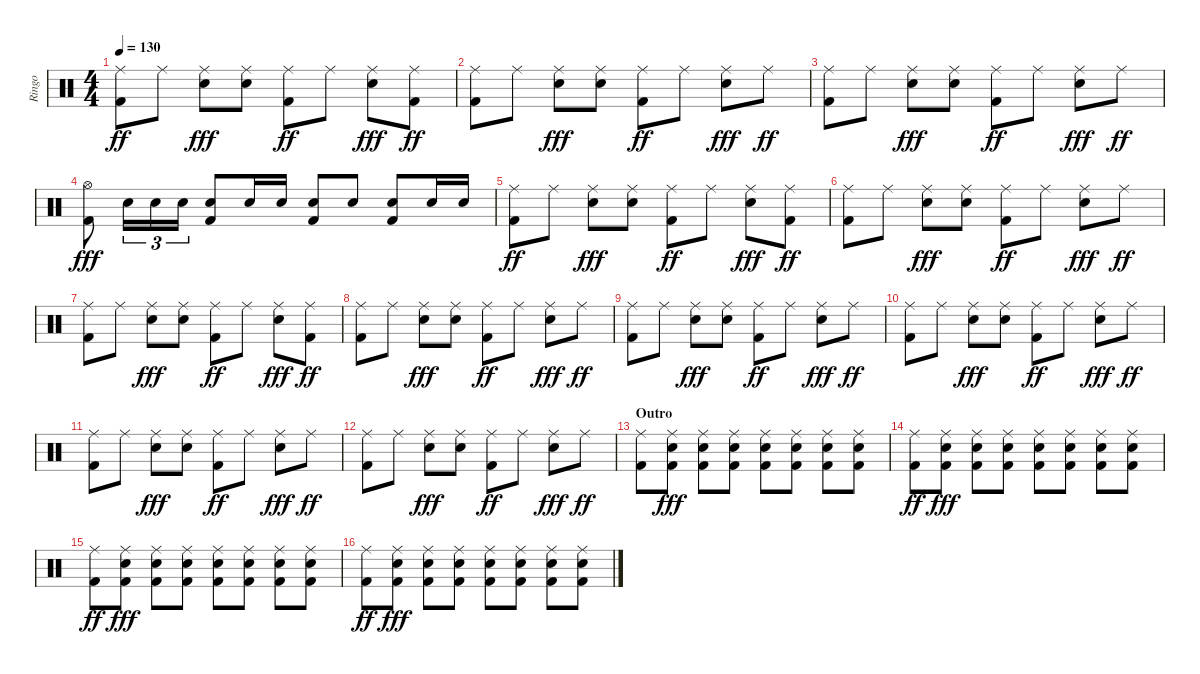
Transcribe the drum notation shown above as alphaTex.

\track ("Ringo" "Ringo") {instrument percussion}
\staff {score}
\articulation defaults
\ts (4 4)
\tempo 130
\clef neutral
\ks c
("Ride (middle)" "Kick (hit) 2").8{dy ff} "Ride (middle)".8 ("Ride (middle)" "Electric Snare (hit)").8{dy fff} ("Ride (middle)" "Electric Snare (hit)").8 ("Ride (middle)" "Kick (hit) 2").8{dy ff} "Ride (middle)".8 ("Ride (middle)" "Electric Snare (hit)").8{dy fff} ("Ride (middle)" "Kick (hit) 2").8{dy ff} |
("Ride (middle)" "Kick (hit) 2").8 "Ride (middle)".8 ("Ride (middle)" "Electric Snare (hit)").8{dy fff} ("Ride (middle)" "Electric Snare (hit)").8 ("Ride (middle)" "Kick (hit) 2").8{dy ff} "Ride (middle)".8 ("Ride (middle)" "Electric Snare (hit)").8{dy fff} "Ride (middle)".8{dy ff} |
("Ride (middle)" "Kick (hit) 2").8 "Ride (middle)".8 ("Ride (middle)" "Electric Snare (hit)").8{dy fff} ("Ride (middle)" "Electric Snare (hit)").8 ("Ride (middle)" "Kick (hit) 2").8{dy ff} "Ride (middle)".8 ("Ride (middle)" "Electric Snare (hit)").8{dy fff} "Ride (middle)".8{dy ff} |
("Hi-Hat (open)" "Kick (hit) 2").8{dy fff} "Electric Snare (hit)".16{tu (3 2)} "Electric Snare (hit)".16{tu (3 2)} "Electric Snare (hit)".16{tu (3 2)} ("Electric Snare (hit)" "Kick (hit) 2").8 "Electric Snare (hit)".16 "Electric Snare (hit)".16 ("Electric Snare (hit)" "Kick (hit) 2").8 "Electric Snare (hit)".8 ("Electric Snare (hit)" "Kick (hit) 2").8 "Electric Snare (hit)".16 "Electric Snare (hit)".16 |
("Ride (middle)" "Kick (hit) 2").8{dy ff} "Ride (middle)".8 ("Ride (middle)" "Electric Snare (hit)").8{dy fff} ("Ride (middle)" "Electric Snare (hit)").8 ("Ride (middle)" "Kick (hit) 2").8{dy ff} "Ride (middle)".8 ("Ride (middle)" "Electric Snare (hit)").8{dy fff} ("Ride (middle)" "Kick (hit) 2").8{dy ff} |
("Ride (middle)" "Kick (hit) 2").8 "Ride (middle)".8 ("Ride (middle)" "Electric Snare (hit)").8{dy fff} ("Ride (middle)" "Electric Snare (hit)").8 ("Ride (middle)" "Kick (hit) 2").8{dy ff} "Ride (middle)".8 ("Ride (middle)" "Electric Snare (hit)").8{dy fff} "Ride (middle)".8{dy ff} |
("Ride (middle)" "Kick (hit) 2").8 "Ride (middle)".8 ("Ride (middle)" "Electric Snare (hit)").8{dy fff} ("Ride (middle)" "Electric Snare (hit)").8 ("Ride (middle)" "Kick (hit) 2").8{dy ff} "Ride (middle)".8 ("Ride (middle)" "Electric Snare (hit)").8{dy fff} ("Ride (middle)" "Kick (hit) 2").8{dy ff} |
("Ride (middle)" "Kick (hit) 2").8 "Ride (middle)".8 ("Ride (middle)" "Electric Snare (hit)").8{dy fff} ("Ride (middle)" "Electric Snare (hit)").8 ("Ride (middle)" "Kick (hit) 2").8{dy ff} "Ride (middle)".8 ("Ride (middle)" "Electric Snare (hit)").8{dy fff} "Ride (middle)".8{dy ff} |
("Ride (middle)" "Kick (hit) 2").8 "Ride (middle)".8 ("Ride (middle)" "Electric Snare (hit)").8{dy fff} ("Ride (middle)" "Electric Snare (hit)").8 ("Ride (middle)" "Kick (hit) 2").8{dy ff} "Ride (middle)".8 ("Ride (middle)" "Electric Snare (hit)").8{dy fff} "Ride (middle)".8{dy ff} |
("Ride (middle)" "Kick (hit) 2").8 "Ride (middle)".8 ("Ride (middle)" "Electric Snare (hit)").8{dy fff} ("Ride (middle)" "Electric Snare (hit)").8 ("Ride (middle)" "Kick (hit) 2").8{dy ff} "Ride (middle)".8 ("Ride (middle)" "Electric Snare (hit)").8{dy fff} "Ride (middle)".8{dy ff} |
("Ride (middle)" "Kick (hit) 2").8 "Ride (middle)".8 ("Ride (middle)" "Electric Snare (hit)").8{dy fff} ("Ride (middle)" "Electric Snare (hit)").8 ("Ride (middle)" "Kick (hit) 2").8{dy ff} "Ride (middle)".8 ("Ride (middle)" "Electric Snare (hit)").8{dy fff} "Ride (middle)".8{dy ff} |
("Ride (middle)" "Kick (hit) 2").8 "Ride (middle)".8 ("Ride (middle)" "Electric Snare (hit)").8{dy fff} ("Ride (middle)" "Electric Snare (hit)").8 ("Ride (middle)" "Kick (hit) 2").8{dy ff} "Ride (middle)".8 ("Ride (middle)" "Electric Snare (hit)").8{dy fff} "Ride (middle)".8{dy ff} |
\section ("" "Outro")
("Ride (middle)" "Kick (hit) 2").8 ("Ride (middle)" "Electric Snare (hit)" "Kick (hit) 2").8{dy fff} ("Ride (middle)" "Electric Snare (hit)" "Kick (hit) 2").8 ("Ride (middle)" "Electric Snare (hit)" "Kick (hit) 2").8 ("Ride (middle)" "Electric Snare (hit)" "Kick (hit) 2").8 ("Ride (middle)" "Electric Snare (hit)" "Kick (hit) 2").8 ("Ride (middle)" "Electric Snare (hit)" "Kick (hit) 2").8 ("Ride (middle)" "Electric Snare (hit)" "Kick (hit) 2").8 |
("Ride (middle)" "Kick (hit) 2").8{dy ff} ("Ride (middle)" "Electric Snare (hit)" "Kick (hit) 2").8{dy fff} ("Ride (middle)" "Electric Snare (hit)" "Kick (hit) 2").8 ("Ride (middle)" "Electric Snare (hit)" "Kick (hit) 2").8 ("Ride (middle)" "Electric Snare (hit)" "Kick (hit) 2").8 ("Ride (middle)" "Electric Snare (hit)" "Kick (hit) 2").8 ("Ride (middle)" "Electric Snare (hit)" "Kick (hit) 2").8 ("Ride (middle)" "Electric Snare (hit)" "Kick (hit) 2").8 |
("Ride (middle)" "Kick (hit) 2").8{dy ff} ("Ride (middle)" "Electric Snare (hit)" "Kick (hit) 2").8{dy fff} ("Ride (middle)" "Electric Snare (hit)" "Kick (hit) 2").8 ("Ride (middle)" "Electric Snare (hit)" "Kick (hit) 2").8 ("Ride (middle)" "Electric Snare (hit)" "Kick (hit) 2").8 ("Ride (middle)" "Electric Snare (hit)" "Kick (hit) 2").8 ("Ride (middle)" "Electric Snare (hit)" "Kick (hit) 2").8 ("Ride (middle)" "Electric Snare (hit)" "Kick (hit) 2").8 |
("Ride (middle)" "Kick (hit) 2").8{dy ff} ("Ride (middle)" "Electric Snare (hit)" "Kick (hit) 2").8{dy fff} ("Ride (middle)" "Electric Snare (hit)" "Kick (hit) 2").8 ("Ride (middle)" "Electric Snare (hit)" "Kick (hit) 2").8 ("Ride (middle)" "Electric Snare (hit)" "Kick (hit) 2").8 ("Ride (middle)" "Electric Snare (hit)" "Kick (hit) 2").8 ("Ride (middle)" "Electric Snare (hit)" "Kick (hit) 2").8 ("Ride (middle)" "Electric Snare (hit)" "Kick (hit) 2").8
